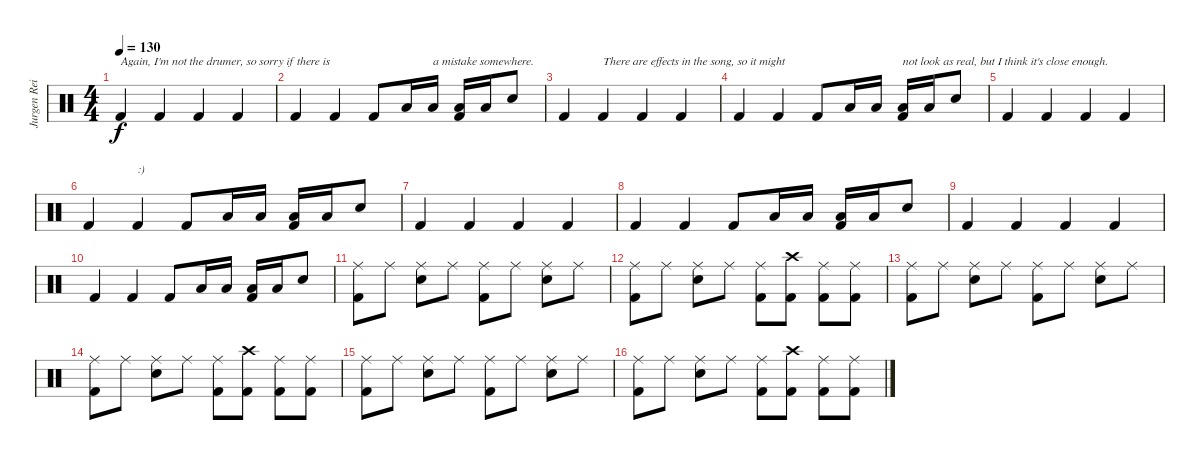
\track ("Jurgen Reil" "Jurgen Rei") {instrument percussion}
\staff {score}
\articulation defaults
\ts (4 4)
\tempo 130
\clef neutral
\ks c "Kick (hit) 2".4{txt "Again, I'm not the drumer, so sorry if there is " dy f} "Kick (hit) 2".4 "Kick (hit) 2".4 "Kick (hit) 2".4
|
"Kick (hit) 2".4 "Kick (hit) 2".4 "Kick (hit) 2".8 "Low Floor Tom (hit)".16 "Low Floor Tom (hit)".16{txt "a mistake somewhere."} ("Kick (hit) 2" "Low Tom (hit)").16 "Low Tom (hit)".16 "Snare (hit) 2".8 |
"Kick (hit) 2".4 "Kick (hit) 2".4{txt "There are effects in the song, so it might"} "Kick (hit) 2".4 "Kick (hit) 2".4 |
"Kick (hit) 2".4 "Kick (hit) 2".4 "Kick (hit) 2".8 "Low Floor Tom (hit)".16 "Low Floor Tom (hit)".16 ("Kick (hit) 2" "Low Tom (hit)").16{txt "not look as real, but I think it's close enough."} "Low Tom (hit)".16 "Snare (hit) 2".8 |
"Kick (hit) 2".4 "Kick (hit) 2".4 "Kick (hit) 2".4 "Kick (hit) 2".4 |
"Kick (hit) 2".4 "Kick (hit) 2".4{txt ":)"} "Kick (hit) 2".8 "Low Floor Tom (hit)".16 "Low Floor Tom (hit)".16 ("Kick (hit) 2" "Low Tom (hit)").16 "Low Tom (hit)".16 "Snare (hit) 2".8 |
"Kick (hit) 2".4 "Kick (hit) 2".4 "Kick (hit) 2".4 "Kick (hit) 2".4 |
"Kick (hit) 2".4 "Kick (hit) 2".4 "Kick (hit) 2".8 "Low Floor Tom (hit)".16 "Low Floor Tom (hit)".16 ("Kick (hit) 2" "Low Tom (hit)").16 "Low Tom (hit)".16 "Snare (hit) 2".8 |
"Kick (hit) 2".4 "Kick (hit) 2".4 "Kick (hit) 2".4 "Kick (hit) 2".4 |
"Kick (hit) 2".4 "Kick (hit) 2".4 "Kick (hit) 2".8 "Low Floor Tom (hit)".16 "Low Floor Tom (hit)".16 ("Kick (hit) 2" "Low Tom (hit)").16 "Low Tom (hit)".16 "Snare (hit) 2".8 |
("Kick (hit) 2" "Ride (middle)").8 "Ride (middle)".8 ("Snare (hit) 2" "Ride (middle)").8 "Ride (middle)".8 ("Kick (hit) 2" "Ride (middle)").8 "Ride (middle)".8 ("Snare (hit) 2" "Ride (middle)").8 "Ride (middle)".8 |
("Kick (hit) 2" "Ride (middle)").8 "Ride (middle)".8 ("Snare (hit) 2" "Ride (middle)").8 "Ride (middle)".8 ("Kick (hit) 2" "Ride (middle)").8 ("Kick (hit) 2" "Crash high (hit)").8 ("Kick (hit) 2" "Ride (middle)").8 ("Kick (hit) 2" "Ride (middle)").8 |
("Kick (hit) 2" "Ride (middle)").8 "Ride (middle)".8 ("Snare (hit) 2" "Ride (middle)").8 "Ride (middle)".8 ("Kick (hit) 2" "Ride (middle)").8 "Ride (middle)".8 ("Snare (hit) 2" "Ride (middle)").8 "Ride (middle)".8 |
("Kick (hit) 2" "Ride (middle)").8 "Ride (middle)".8 ("Snare (hit) 2" "Ride (middle)").8 "Ride (middle)".8 ("Kick (hit) 2" "Ride (middle)").8 ("Kick (hit) 2" "Crash high (hit)").8 ("Kick (hit) 2" "Ride (middle)").8 ("Kick (hit) 2" "Ride (middle)").8 |
("Kick (hit) 2" "Ride (middle)").8 "Ride (middle)".8 ("Snare (hit) 2" "Ride (middle)").8 "Ride (middle)".8 ("Kick (hit) 2" "Ride (middle)").8 "Ride (middle)".8 ("Snare (hit) 2" "Ride (middle)").8 "Ride (middle)".8 |
("Kick (hit) 2" "Ride (middle)").8 "Ride (middle)".8 ("Snare (hit) 2" "Ride (middle)").8 "Ride (middle)".8 ("Kick (hit) 2" "Ride (middle)").8 ("Kick (hit) 2" "Crash high (hit)").8 ("Kick (hit) 2" "Ride (middle)").8 ("Kick (hit) 2" "Ride (middle)").8
